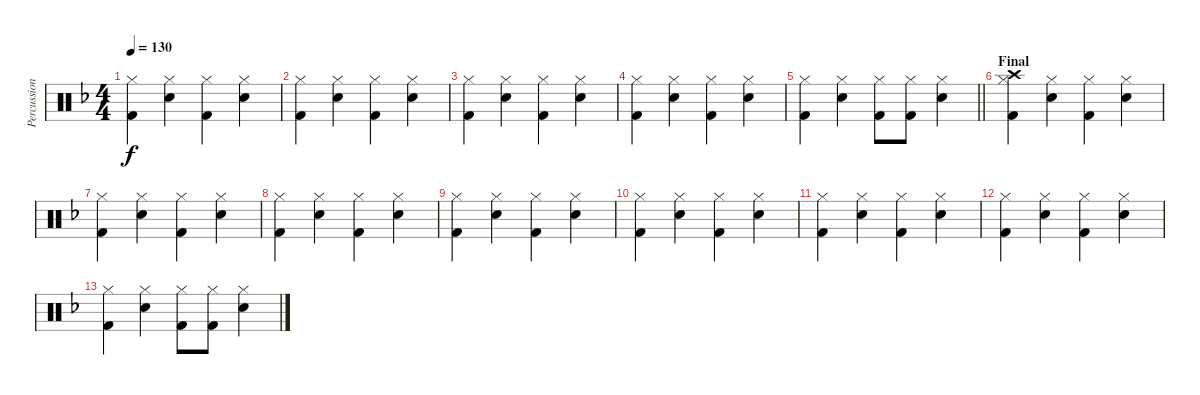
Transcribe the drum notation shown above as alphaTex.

\track ("Percussions" "Percussion") {instrument percussion}
\staff {score}
\articulation defaults
\ts (4 4)
\tempo 130
\clef neutral
\ks f
("Kick (hit) 2" "Hi-Hat (closed)").4{dy f} ("Snare (hit) 2" "Hi-Hat (closed)").4 ("Kick (hit) 2" "Hi-Hat (closed)").4 ("Snare (hit) 2" "Hi-Hat (closed)").4 |
("Kick (hit) 2" "Hi-Hat (closed)").4 ("Snare (hit) 2" "Hi-Hat (closed)").4 ("Kick (hit) 2" "Hi-Hat (closed)").4 ("Snare (hit) 2" "Hi-Hat (closed)").4 |
("Kick (hit) 2" "Hi-Hat (closed)").4 ("Snare (hit) 2" "Hi-Hat (closed)").4 ("Kick (hit) 2" "Hi-Hat (closed)").4 ("Snare (hit) 2" "Hi-Hat (closed)").4 |
("Kick (hit) 2" "Hi-Hat (closed)").4 ("Snare (hit) 2" "Hi-Hat (closed)").4 ("Kick (hit) 2" "Hi-Hat (closed)").4 ("Snare (hit) 2" "Hi-Hat (closed)").4 |
\barLineRight lightlight
("Kick (hit) 2" "Hi-Hat (closed)").4 ("Snare (hit) 2" "Hi-Hat (closed)").4 ("Kick (hit) 2" "Hi-Hat (closed)").8 ("Kick (hit) 2" "Hi-Hat (closed)").8 ("Snare (hit) 2" "Hi-Hat (closed)").4 |
\section ("" "Final")
("Kick (hit) 2" "Hi-Hat (closed)" "Crash high (hit)").4 ("Snare (hit) 2" "Hi-Hat (closed)").4 ("Kick (hit) 2" "Hi-Hat (closed)").4 ("Snare (hit) 2" "Hi-Hat (closed)").4 |
("Kick (hit) 2" "Hi-Hat (closed)").4 ("Snare (hit) 2" "Hi-Hat (closed)").4 ("Kick (hit) 2" "Hi-Hat (closed)").4 ("Snare (hit) 2" "Hi-Hat (closed)").4 |
("Kick (hit) 2" "Hi-Hat (closed)").4 ("Snare (hit) 2" "Hi-Hat (closed)").4 ("Kick (hit) 2" "Hi-Hat (closed)").4 ("Snare (hit) 2" "Hi-Hat (closed)").4 |
("Kick (hit) 2" "Hi-Hat (closed)").4 ("Snare (hit) 2" "Hi-Hat (closed)").4 ("Kick (hit) 2" "Hi-Hat (closed)").4 ("Snare (hit) 2" "Hi-Hat (closed)").4 |
("Kick (hit) 2" "Hi-Hat (closed)").4 ("Snare (hit) 2" "Hi-Hat (closed)").4 ("Kick (hit) 2" "Hi-Hat (closed)").4 ("Snare (hit) 2" "Hi-Hat (closed)").4 |
("Kick (hit) 2" "Hi-Hat (closed)").4 ("Snare (hit) 2" "Hi-Hat (closed)").4 ("Kick (hit) 2" "Hi-Hat (closed)").4 ("Snare (hit) 2" "Hi-Hat (closed)").4 |
("Kick (hit) 2" "Hi-Hat (closed)").4 ("Snare (hit) 2" "Hi-Hat (closed)").4 ("Kick (hit) 2" "Hi-Hat (closed)").4 ("Snare (hit) 2" "Hi-Hat (closed)").4 |
("Kick (hit) 2" "Hi-Hat (closed)").4 ("Snare (hit) 2" "Hi-Hat (closed)").4 ("Kick (hit) 2" "Hi-Hat (closed)").8 ("Kick (hit) 2" "Hi-Hat (closed)").8 ("Snare (hit) 2" "Hi-Hat (closed)").4
